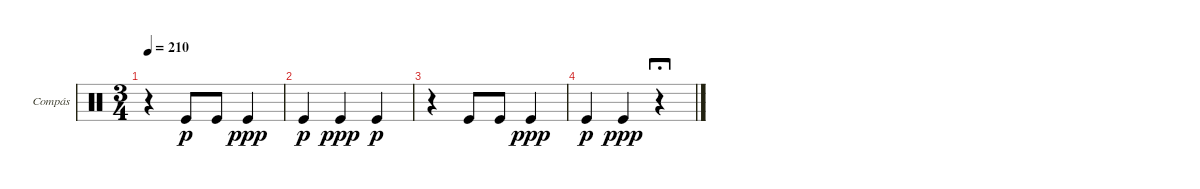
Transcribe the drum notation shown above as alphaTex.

\defaultSystemsLayout 4
\bracketExtendMode groupsimilarinstruments
\firstSystemTrackNameOrientation horizontal
\otherSystemsTrackNameOrientation horizontal
\track ("Compás" "Compás") {instrument percussion}
\staff {score}
\articulation defaults
\ts (3 4)
\tempo 210
\clef neutral
\ks c
r.4{dy p} "Kick (hit)".8 "Kick (hit)".8 "Kick (hit)".4{dy ppp} |
"Kick (hit)".4{dy p} "Kick (hit)".4{dy ppp} "Kick (hit)".4{dy p} |
r.4 "Kick (hit)".8 "Kick (hit)".8 "Kick (hit)".4{dy ppp} |
"Kick (hit)".4{dy p} "Kick (hit)".4{dy ppp} r.4{fermata (long 1)}
